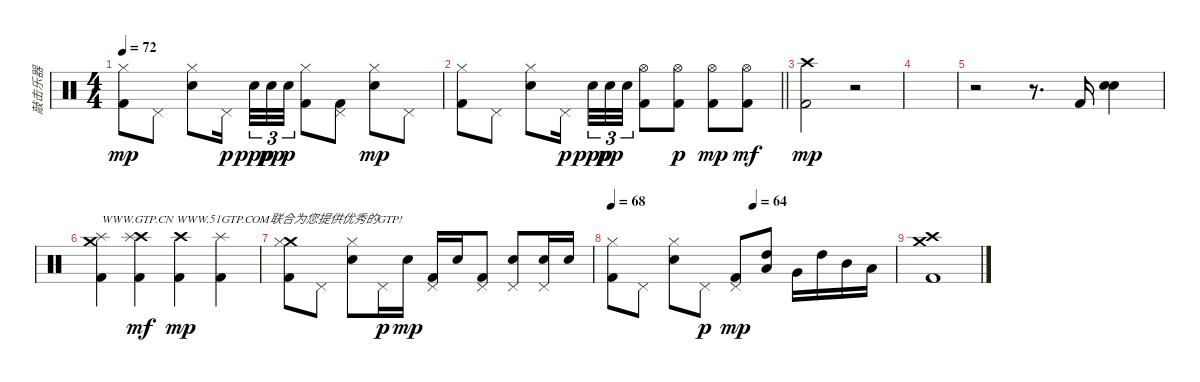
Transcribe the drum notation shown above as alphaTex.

\track ("敲击乐器" "敲击乐器") {instrument percussion}
\staff {score}
\articulation defaults
\ts (4 4)
\tempo 72
\clef neutral
\ks c
("Hi-Hat (closed)" "Kick (hit) 2").8{dy mp} "Pedal Hi-Hat (hit)".8 ("Hi-Hat (closed)" "Electric Snare (hit)").8 "Pedal Hi-Hat (hit)".16{dy p beam splitsecondary} "Electric Snare (hit)".32{tu (3 2) dy ppp} "Electric Snare (hit)".32{tu (3 2) dy pp} "Electric Snare (hit)".32{tu (3 2) dy p} ("Hi-Hat (closed)" "Kick (hit) 2").8 ("Pedal Hi-Hat (hit)" "Kick (hit) 2").8 ("Hi-Hat (closed)" "Electric Snare (hit)").8{dy mp} "Pedal Hi-Hat (hit)".8 |
\barLineRight lightlight
("Hi-Hat (closed)" "Kick (hit) 2").8 "Pedal Hi-Hat (hit)".8 ("Hi-Hat (closed)" "Electric Snare (hit)").8 "Pedal Hi-Hat (hit)".16{dy p beam splitsecondary} "Electric Snare (hit)".32{tu (3 2) dy ppp} "Electric Snare (hit)".32{tu (3 2) dy pp} "Electric Snare (hit)".32{tu (3 2)} ("Hi-Hat (open)" "Kick (hit) 2").8 ("Hi-Hat (open)" "Kick (hit) 2").8{dy p} ("Hi-Hat (open)" "Kick (hit) 2").8{dy mp} ("Hi-Hat (open)" "Kick (hit) 2").8{dy mf} |
("Crash high (hit)" "Kick (hit) 2").2{dy mp} r.2 |
|
r.2 r.8{d} "Kick (hit) 2".16 ("Electric Snare (hit)" "Snare (hit) 2").4 |
("Crash medium (hit)" "Splash (hit)" "Kick (hit) 2").4{txt "WWW.GTP.CN WWW.51GTP.COM联合为您提供优秀的GTP!"} ("Crash high (hit)" "Splash (hit)" "Kick (hit) 2").4{dy mf} ("Crash high (hit)" "Kick (hit) 2").4{dy mp} ("Splash (hit)" "Kick (hit) 2").4 |
("Crash medium (hit)" "Hi-Hat (closed)" "Kick (hit) 2").8 "Pedal Hi-Hat (hit)".8 ("Hi-Hat (closed)" "Electric Snare (hit)").8 "Pedal Hi-Hat (hit)".16{dy p} "Electric Snare (hit)".16{dy mp} ("Pedal Hi-Hat (hit)" "Kick (hit) 2").16 "Electric Snare (hit)".16 ("Pedal Hi-Hat (hit)" "Kick (hit) 2").8 ("Pedal Hi-Hat (hit)" "Electric Snare (hit)").8 ("Pedal Hi-Hat (hit)" "Electric Snare (hit)").16 "Electric Snare (hit)".16 |
\tempo 68
\tempo (64 0.5)
("Hi-Hat (closed)" "Kick (hit) 2").8 "Pedal Hi-Hat (hit)".8 ("Hi-Hat (closed)" "Electric Snare (hit)").8 "Pedal Hi-Hat (hit)".8{dy p} ("Pedal Hi-Hat (hit)" "Kick (hit) 2").8{dy mp} ("High Tom (hit)" "Low Tom (hit)").8 "Very Low Tom (hit)".16 "High Tom (hit)".16 "Mid Tom (hit)".16 "Low Tom (hit)".16 |
("Crash medium (hit)" "Crash high (hit)" "Kick (hit) 2").1
